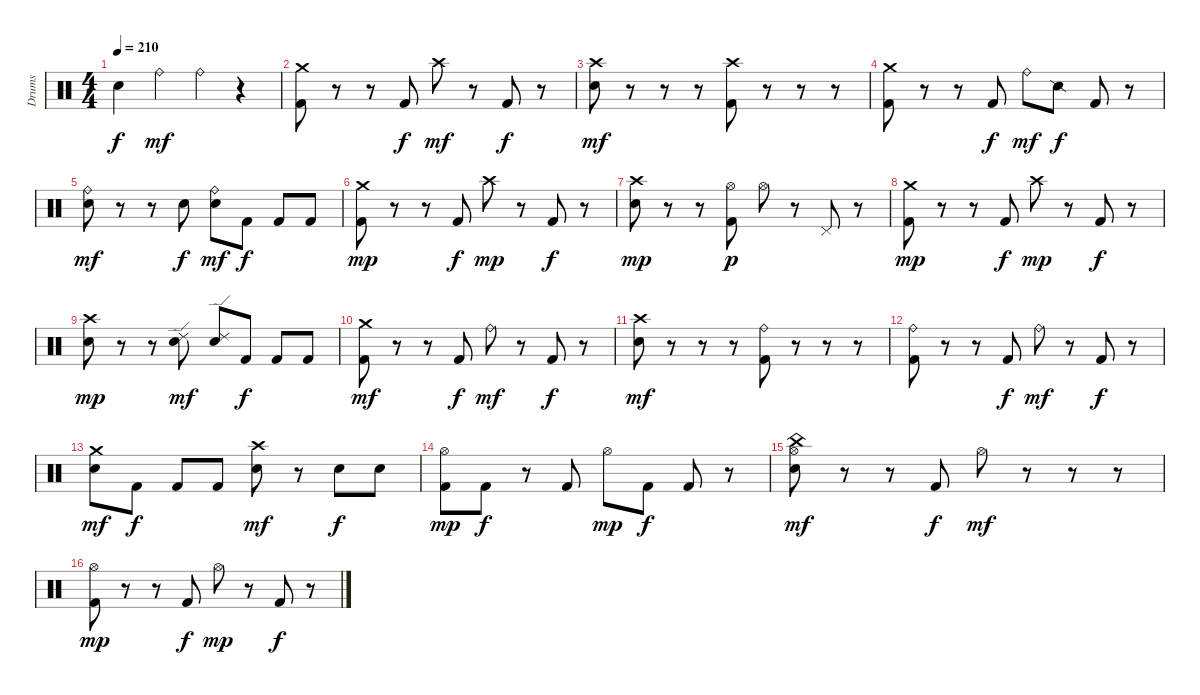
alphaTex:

\track ("Drums" "Drums") {instrument percussion}
\staff {score}
\articulation defaults
\ts (4 4)
\tempo 210
\clef neutral
\ks c "Snare (hit) 2".4{dy f} "Ride (bell)".4{dy mf} "Ride (bell)".4
r.4 |
("Kick (hit) 2" "Crash medium (hit)").8 r.8 r.8 "Kick (hit) 2".8{dy f} "Crash high (hit)".8{dy mf} r.8 "Kick (hit) 2".8{dy f} r.8 |
("Snare (hit) 2" "Crash high (hit)").8{dy mf} r.8 r.8 r.8 ("Kick (hit) 2" "Crash high (hit)").8 r.8 r.8 r.8 |
("Kick (hit) 2" "Crash medium (hit)").8 r.8 r.8 "Kick (hit) 2".8{dy f} "Ride (bell)".8{dy mf} "Snare (side stick) 2".8{dy f} "Kick (hit) 2".8 r.8 |
("Snare (hit) 2" "Ride (bell)").8{dy mf} r.8 r.8 "Snare (hit) 2".8{dy f} ("Snare (hit) 2" "Ride (bell)").8{dy mf} "Kick (hit) 2".8{dy f} "Kick (hit) 2".8 "Kick (hit) 2".8 |
("Kick (hit) 2" "Crash medium (hit)").8{dy mp} r.8 r.8 "Kick (hit) 2".8{dy f} "Crash high (hit)".8{dy mp} r.8 "Kick (hit) 2".8{dy f} r.8 |
("Snare (hit) 2" "Crash high (hit)").8{dy mp} r.8 r.8 ("Kick (hit) 2" "Hi-Hat (open)").8{dy p} "Hi-Hat (open)".8 r.8 "Pedal Hi-Hat (hit)".8 r.8 |
("Kick (hit) 2" "Crash medium (hit)").8{dy mp} r.8 r.8 "Kick (hit) 2".8{dy f} "Crash high (hit)".8{dy mp} r.8 "Kick (hit) 2".8{dy f} r.8 |
("Snare (hit) 2" "Crash high (hit)").8{dy mp} r.8 r.8 ("Snare (hit) 2" "Ride (edge) 2").8{dy mf} ("Snare (hit) 2" "Ride (edge) 2").8 "Kick (hit) 2".8{dy f} "Kick (hit) 2".8 "Kick (hit) 2".8 |
("Kick (hit) 2" "Crash medium (hit)").8{dy mf} r.8 r.8 "Kick (hit) 2".8{dy f} "Ride (bell)".8{dy mf} r.8 "Kick (hit) 2".8{dy f} r.8 |
("Snare (hit) 2" "Crash high (hit)").8{dy mf} r.8 r.8 r.8 ("Kick (hit) 2" "Ride (bell)").8 r.8 r.8 r.8 |
("Kick (hit) 2" "Ride (bell)").8 r.8 r.8 "Kick (hit) 2".8{dy f} "Ride (bell)".8{dy mf} r.8 "Kick (hit) 2".8{dy f} r.8 |
("Snare (hit) 2" "Crash medium (hit)").8{dy mf} "Kick (hit) 2".8{dy f} "Kick (hit) 2".8 "Kick (hit) 2".8 ("Snare (hit) 2" "Crash high (hit)").8{dy mf} r.8 "Snare (hit) 2".8{dy f} "Snare (hit) 2".8 |
("Kick (hit) 2" "Hi-Hat (open)").8{dy mp} "Kick (hit) 2".8{dy f} r.8 "Kick (hit) 2".8 "Hi-Hat (open)".8{dy mp} "Kick (hit) 2".8{dy f} "Kick (hit) 2".8 r.8 |
("Snare (hit) 2" "Hi-Hat (open)" "China (hit)").8{dy mf} r.8 r.8 "Kick (hit) 2".8{dy f} "Hi-Hat (open)".8{dy mf} r.8 r.8 r.8 |
("Kick (hit) 2" "Hi-Hat (open)").8{dy mp} r.8 r.8 "Kick (hit) 2".8{dy f} "Hi-Hat (open)".8{dy mp} r.8 "Kick (hit) 2".8{dy f} r.8
